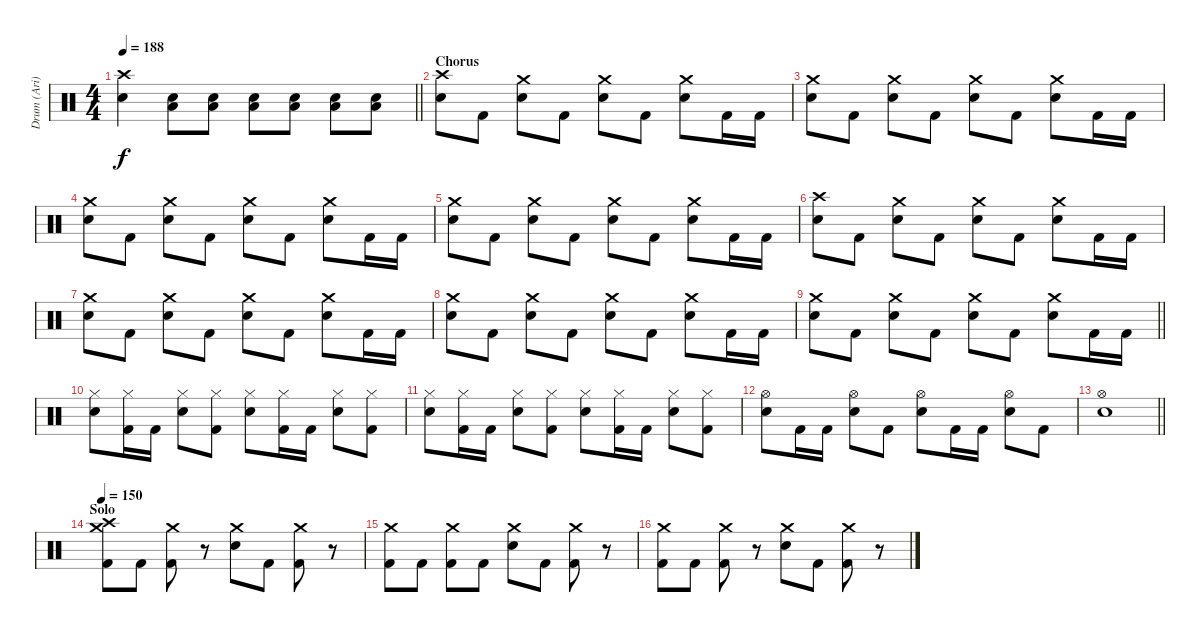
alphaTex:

\track ("Drum (Ari)" "Drum (Ari)") {instrument percussion}
\staff {score}
\articulation defaults
\ts (4 4)
\tempo 188
\clef neutral
\barLineRight lightlight
\ks c
("Crash high (hit)" "Electric Snare (hit)").4{dy f} ("Electric Snare (hit)" "Low Floor Tom (hit)").8 ("Electric Snare (hit)" "Low Floor Tom (hit)").8 ("Electric Snare (hit)" "Low Floor Tom (hit)").8 ("Electric Snare (hit)" "Low Floor Tom (hit)").8 ("Electric Snare (hit)" "Low Floor Tom (hit)").8 ("Electric Snare (hit)" "Low Floor Tom (hit)").8 |
\section ("" "Chorus")
("Crash high (hit)" "Electric Snare (hit)").8 "Kick (hit) 2".8 ("Crash medium (hit)" "Electric Snare (hit)").8 "Kick (hit) 2".8 ("Crash medium (hit)" "Electric Snare (hit)").8 "Kick (hit) 2".8 ("Crash medium (hit)" "Electric Snare (hit)").8 "Kick (hit) 2".16 "Kick (hit) 2".16 |
("Crash medium (hit)" "Electric Snare (hit)").8 "Kick (hit) 2".8 ("Crash medium (hit)" "Electric Snare (hit)").8 "Kick (hit) 2".8 ("Crash medium (hit)" "Electric Snare (hit)").8 "Kick (hit) 2".8 ("Crash medium (hit)" "Electric Snare (hit)").8 "Kick (hit) 2".16 "Kick (hit) 2".16 |
("Crash medium (hit)" "Electric Snare (hit)").8 "Kick (hit) 2".8 ("Crash medium (hit)" "Electric Snare (hit)").8 "Kick (hit) 2".8 ("Crash medium (hit)" "Electric Snare (hit)").8 "Kick (hit) 2".8 ("Crash medium (hit)" "Electric Snare (hit)").8 "Kick (hit) 2".16 "Kick (hit) 2".16 |
("Crash medium (hit)" "Electric Snare (hit)").8 "Kick (hit) 2".8 ("Crash medium (hit)" "Electric Snare (hit)").8 "Kick (hit) 2".8 ("Crash medium (hit)" "Electric Snare (hit)").8 "Kick (hit) 2".8 ("Crash medium (hit)" "Electric Snare (hit)").8 "Kick (hit) 2".16 "Kick (hit) 2".16 |
("Crash high (hit)" "Electric Snare (hit)").8 "Kick (hit) 2".8 ("Crash medium (hit)" "Electric Snare (hit)").8 "Kick (hit) 2".8 ("Crash medium (hit)" "Electric Snare (hit)").8 "Kick (hit) 2".8 ("Crash medium (hit)" "Electric Snare (hit)").8 "Kick (hit) 2".16 "Kick (hit) 2".16 |
("Crash medium (hit)" "Electric Snare (hit)").8 "Kick (hit) 2".8 ("Crash medium (hit)" "Electric Snare (hit)").8 "Kick (hit) 2".8 ("Crash medium (hit)" "Electric Snare (hit)").8 "Kick (hit) 2".8 ("Crash medium (hit)" "Electric Snare (hit)").8 "Kick (hit) 2".16 "Kick (hit) 2".16 |
("Crash medium (hit)" "Electric Snare (hit)").8 "Kick (hit) 2".8 ("Crash medium (hit)" "Electric Snare (hit)").8 "Kick (hit) 2".8 ("Crash medium (hit)" "Electric Snare (hit)").8 "Kick (hit) 2".8 ("Crash medium (hit)" "Electric Snare (hit)").8 "Kick (hit) 2".16 "Kick (hit) 2".16 |
\barLineRight lightlight
("Crash medium (hit)" "Electric Snare (hit)").8 "Kick (hit) 2".8 ("Crash medium (hit)" "Electric Snare (hit)").8 "Kick (hit) 2".8 ("Crash medium (hit)" "Electric Snare (hit)").8 "Kick (hit) 2".8 ("Crash medium (hit)" "Electric Snare (hit)").8 "Kick (hit) 2".16 "Kick (hit) 2".16 |
("Hi-Hat (closed)" "Electric Snare (hit)").8 ("Hi-Hat (closed)" "Kick (hit) 2").16 "Kick (hit) 2".16 ("Hi-Hat (closed)" "Electric Snare (hit)").8 ("Hi-Hat (closed)" "Kick (hit) 2").8 ("Hi-Hat (closed)" "Electric Snare (hit)").8 ("Hi-Hat (closed)" "Kick (hit) 2").16 "Kick (hit) 2".16 ("Hi-Hat (closed)" "Electric Snare (hit)").8 ("Hi-Hat (closed)" "Kick (hit) 2").8 |
("Hi-Hat (closed)" "Electric Snare (hit)").8 ("Hi-Hat (closed)" "Kick (hit) 2").16 "Kick (hit) 2".16 ("Hi-Hat (closed)" "Electric Snare (hit)").8 ("Hi-Hat (closed)" "Kick (hit) 2").8 ("Hi-Hat (closed)" "Electric Snare (hit)").8 ("Hi-Hat (closed)" "Kick (hit) 2").16 "Kick (hit) 2".16 ("Hi-Hat (closed)" "Electric Snare (hit)").8 ("Hi-Hat (closed)" "Kick (hit) 2").8 |
("Hi-Hat (open)" "Electric Snare (hit)").8 "Kick (hit) 2".16 "Kick (hit) 2".16 ("Hi-Hat (open)" "Electric Snare (hit)").8 "Kick (hit) 2".8 ("Hi-Hat (open)" "Electric Snare (hit)").8 "Kick (hit) 2".16 "Kick (hit) 2".16 ("Hi-Hat (open)" "Electric Snare (hit)").8 "Kick (hit) 2".8 |
\barLineRight lightlight
("Hi-Hat (open)" "Electric Snare (hit)").1 |
\section ("" "Solo")
\tempo 150
("Crash high (hit)" "Crash medium (hit)" "Kick (hit) 2").8 "Kick (hit) 2".8 ("Crash medium (hit)" "Kick (hit) 2").8 r.8 ("Crash medium (hit)" "Electric Snare (hit)").8 "Kick (hit) 2".8 ("Crash medium (hit)" "Kick (hit) 2").8 r.8 |
("Crash medium (hit)" "Kick (hit) 2").8 "Kick (hit) 2".8 ("Crash medium (hit)" "Kick (hit) 2").8 "Kick (hit) 2".8 ("Crash medium (hit)" "Electric Snare (hit)").8 "Kick (hit) 2".8 ("Crash medium (hit)" "Kick (hit) 2").8 r.8 |
("Crash medium (hit)" "Kick (hit) 2").8 "Kick (hit) 2".8 ("Crash medium (hit)" "Kick (hit) 2").8 r.8 ("Crash medium (hit)" "Electric Snare (hit)").8 "Kick (hit) 2".8 ("Crash medium (hit)" "Kick (hit) 2").8 r.8
